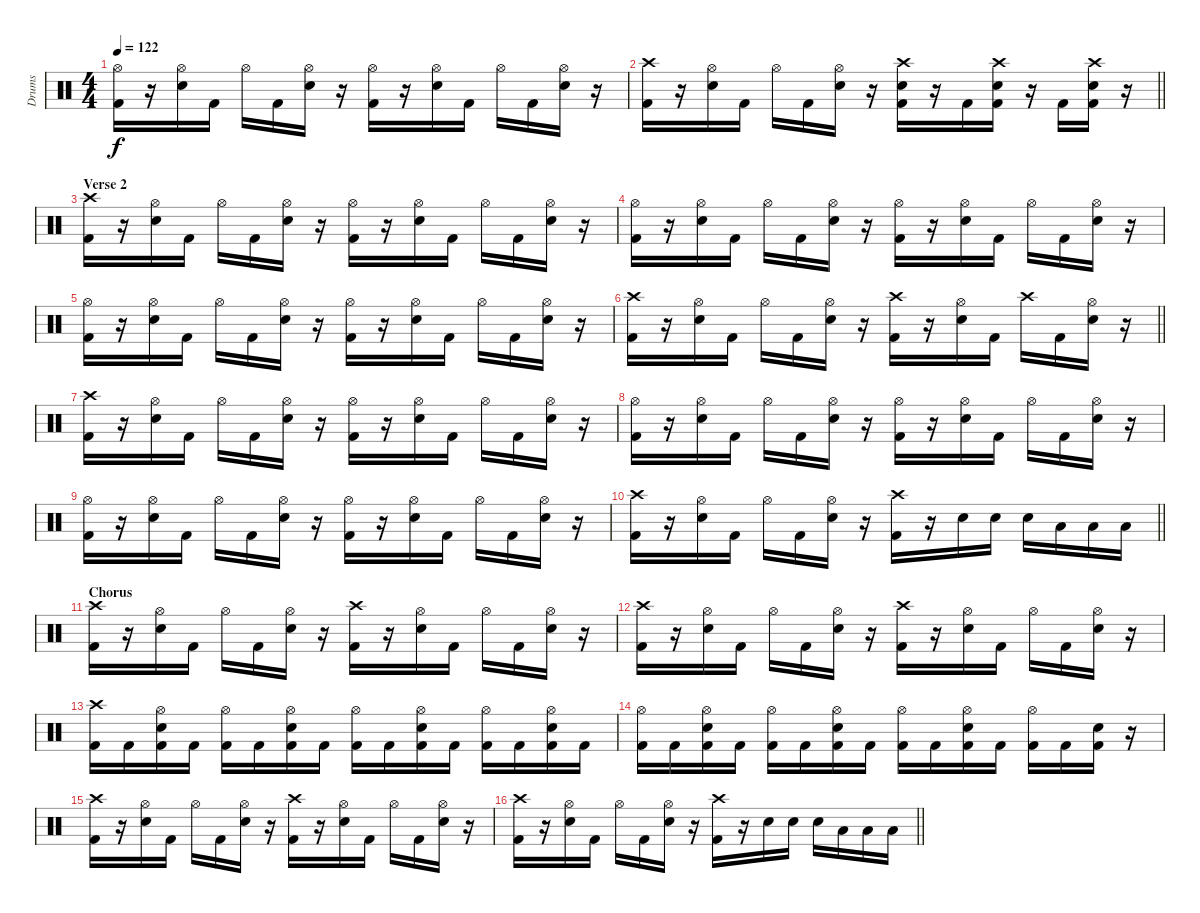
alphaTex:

\track ("Drums" "Drums") {instrument percussion}
\staff {score}
\articulation defaults
\ts (4 4)
\tempo 122
\clef neutral
\ks c
("Hi-Hat (open)" "Kick (hit) 2").16{dy f} r.16 ("Hi-Hat (open)" "Snare (hit) 2").16 "Kick (hit) 2".16 "Hi-Hat (open)".16 "Kick (hit) 2".16 ("Hi-Hat (open)" "Snare (hit) 2").16 r.16 ("Hi-Hat (open)" "Kick (hit) 2").16 r.16 ("Hi-Hat (open)" "Snare (hit) 2").16 "Kick (hit) 2".16 "Hi-Hat (open)".16 "Kick (hit) 2".16 ("Hi-Hat (open)" "Snare (hit) 2").16 r.16 |
\barLineRight lightlight
("Crash high (hit)" "Kick (hit) 2").16 r.16 ("Hi-Hat (open)" "Snare (hit) 2").16 "Kick (hit) 2".16 "Hi-Hat (open)".16 "Kick (hit) 2".16 ("Hi-Hat (open)" "Snare (hit) 2").16 r.16 ("Crash high (hit)" "Snare (hit) 2" "Kick (hit) 2").16 r.16 "Kick (hit) 2".16 ("Crash high (hit)" "Snare (hit) 2" "Kick (hit) 2").16 r.16 "Kick (hit) 2".16 ("Crash high (hit)" "Snare (hit) 2" "Kick (hit) 2").16 r.16 |
\section ("" "Verse 2")
("Crash high (hit)" "Kick (hit) 2").16 r.16 ("Hi-Hat (open)" "Snare (hit) 2").16 "Kick (hit) 2".16 "Hi-Hat (open)".16 "Kick (hit) 2".16 ("Hi-Hat (open)" "Snare (hit) 2").16 r.16 ("Hi-Hat (open)" "Kick (hit) 2").16 r.16 ("Hi-Hat (open)" "Snare (hit) 2").16 "Kick (hit) 2".16 "Hi-Hat (open)".16 "Kick (hit) 2".16 ("Hi-Hat (open)" "Snare (hit) 2").16 r.16 |
("Hi-Hat (open)" "Kick (hit) 2").16 r.16 ("Hi-Hat (open)" "Snare (hit) 2").16 "Kick (hit) 2".16 "Hi-Hat (open)".16 "Kick (hit) 2".16 ("Hi-Hat (open)" "Snare (hit) 2").16 r.16 ("Hi-Hat (open)" "Kick (hit) 2").16 r.16 ("Hi-Hat (open)" "Snare (hit) 2").16 "Kick (hit) 2".16 "Hi-Hat (open)".16 "Kick (hit) 2".16 ("Hi-Hat (open)" "Snare (hit) 2").16 r.16 |
("Hi-Hat (open)" "Kick (hit) 2").16 r.16 ("Hi-Hat (open)" "Snare (hit) 2").16 "Kick (hit) 2".16 "Hi-Hat (open)".16 "Kick (hit) 2".16 ("Hi-Hat (open)" "Snare (hit) 2").16 r.16 ("Hi-Hat (open)" "Kick (hit) 2").16 r.16 ("Hi-Hat (open)" "Snare (hit) 2").16 "Kick (hit) 2".16 "Hi-Hat (open)".16 "Kick (hit) 2".16 ("Hi-Hat (open)" "Snare (hit) 2").16 r.16 |
\barLineRight lightlight
("Crash high (hit)" "Kick (hit) 2").16 r.16 ("Hi-Hat (open)" "Snare (hit) 2").16 "Kick (hit) 2".16 "Hi-Hat (open)".16 "Kick (hit) 2".16 ("Hi-Hat (open)" "Snare (hit) 2").16 r.16 ("Crash high (hit)" "Kick (hit) 2").16 r.16 ("Hi-Hat (open)" "Snare (hit) 2").16 "Kick (hit) 2".16 "Crash high (hit)".16 "Kick (hit) 2".16 ("Hi-Hat (open)" "Snare (hit) 2").16 r.16 |
("Crash high (hit)" "Kick (hit) 2").16 r.16 ("Hi-Hat (open)" "Snare (hit) 2").16 "Kick (hit) 2".16 "Hi-Hat (open)".16 "Kick (hit) 2".16 ("Hi-Hat (open)" "Snare (hit) 2").16 r.16 ("Hi-Hat (open)" "Kick (hit) 2").16 r.16 ("Hi-Hat (open)" "Snare (hit) 2").16 "Kick (hit) 2".16 "Hi-Hat (open)".16 "Kick (hit) 2".16 ("Hi-Hat (open)" "Snare (hit) 2").16 r.16 |
("Hi-Hat (open)" "Kick (hit) 2").16 r.16 ("Hi-Hat (open)" "Snare (hit) 2").16 "Kick (hit) 2".16 "Hi-Hat (open)".16 "Kick (hit) 2".16 ("Hi-Hat (open)" "Snare (hit) 2").16 r.16 ("Hi-Hat (open)" "Kick (hit) 2").16 r.16 ("Hi-Hat (open)" "Snare (hit) 2").16 "Kick (hit) 2".16 "Hi-Hat (open)".16 "Kick (hit) 2".16 ("Hi-Hat (open)" "Snare (hit) 2").16 r.16 |
("Hi-Hat (open)" "Kick (hit) 2").16 r.16 ("Hi-Hat (open)" "Snare (hit) 2").16 "Kick (hit) 2".16 "Hi-Hat (open)".16 "Kick (hit) 2".16 ("Hi-Hat (open)" "Snare (hit) 2").16 r.16 ("Hi-Hat (open)" "Kick (hit) 2").16 r.16 ("Hi-Hat (open)" "Snare (hit) 2").16 "Kick (hit) 2".16 "Hi-Hat (open)".16 "Kick (hit) 2".16 ("Hi-Hat (open)" "Snare (hit) 2").16 r.16 |
\barLineRight lightlight
("Crash high (hit)" "Kick (hit) 2").16 r.16 ("Hi-Hat (open)" "Snare (hit) 2").16 "Kick (hit) 2".16 "Hi-Hat (open)".16 "Kick (hit) 2".16 ("Hi-Hat (open)" "Snare (hit) 2").16 r.16 ("Crash high (hit)" "Kick (hit) 2").16 r.16 "Snare (hit) 2".16 "Snare (hit) 2".16 "Snare (hit) 2".16 "Low Tom (hit)".16 "Low Tom (hit)".16 "Low Tom (hit)".16 |
\section ("" "Chorus")
("Crash high (hit)" "Kick (hit) 2").16 r.16 ("Hi-Hat (open)" "Snare (hit) 2").16 "Kick (hit) 2".16 "Hi-Hat (open)".16 "Kick (hit) 2".16 ("Hi-Hat (open)" "Snare (hit) 2").16 r.16 ("Crash high (hit)" "Kick (hit) 2").16 r.16 ("Hi-Hat (open)" "Snare (hit) 2").16 "Kick (hit) 2".16 "Hi-Hat (open)".16 "Kick (hit) 2".16 ("Hi-Hat (open)" "Snare (hit) 2").16 r.16 |
("Crash high (hit)" "Kick (hit) 2").16 r.16 ("Hi-Hat (open)" "Snare (hit) 2").16 "Kick (hit) 2".16 "Hi-Hat (open)".16 "Kick (hit) 2".16 ("Hi-Hat (open)" "Snare (hit) 2").16 r.16 ("Crash high (hit)" "Kick (hit) 2").16 r.16 ("Hi-Hat (open)" "Snare (hit) 2").16 "Kick (hit) 2".16 "Hi-Hat (open)".16 "Kick (hit) 2".16 ("Hi-Hat (open)" "Snare (hit) 2").16 r.16 |
("Crash high (hit)" "Kick (hit) 2").16 "Kick (hit) 2".16 ("Hi-Hat (open)" "Snare (hit) 2" "Kick (hit) 2").16 "Kick (hit) 2".16 ("Hi-Hat (open)" "Kick (hit) 2").16 "Kick (hit) 2".16 ("Hi-Hat (open)" "Snare (hit) 2" "Kick (hit) 2").16 "Kick (hit) 2".16 ("Hi-Hat (open)" "Kick (hit) 2").16 "Kick (hit) 2".16 ("Hi-Hat (open)" "Snare (hit) 2" "Kick (hit) 2").16 "Kick (hit) 2".16 ("Hi-Hat (open)" "Kick (hit) 2").16 "Kick (hit) 2".16 ("Hi-Hat (open)" "Snare (hit) 2" "Kick (hit) 2").16 "Kick (hit) 2".16 |
("Hi-Hat (open)" "Kick (hit) 2").16 "Kick (hit) 2".16 ("Hi-Hat (open)" "Snare (hit) 2" "Kick (hit) 2").16 "Kick (hit) 2".16 ("Hi-Hat (open)" "Kick (hit) 2").16 "Kick (hit) 2".16 ("Hi-Hat (open)" "Snare (hit) 2" "Kick (hit) 2").16 "Kick (hit) 2".16 ("Hi-Hat (open)" "Kick (hit) 2").16 "Kick (hit) 2".16 ("Hi-Hat (open)" "Snare (hit) 2" "Kick (hit) 2").16 "Kick (hit) 2".16 ("Hi-Hat (open)" "Kick (hit) 2").16 "Kick (hit) 2".16 ("Snare (hit) 2" "Kick (hit) 2").16 r.16 |
("Crash high (hit)" "Kick (hit) 2").16 r.16 ("Hi-Hat (open)" "Snare (hit) 2").16 "Kick (hit) 2".16 "Hi-Hat (open)".16 "Kick (hit) 2".16 ("Hi-Hat (open)" "Snare (hit) 2").16 r.16 ("Crash high (hit)" "Kick (hit) 2").16 r.16 ("Hi-Hat (open)" "Snare (hit) 2").16 "Kick (hit) 2".16 "Hi-Hat (open)".16 "Kick (hit) 2".16 ("Hi-Hat (open)" "Snare (hit) 2").16 r.16 |
\barLineRight lightlight
("Crash high (hit)" "Kick (hit) 2").16 r.16 ("Hi-Hat (open)" "Snare (hit) 2").16 "Kick (hit) 2".16 "Hi-Hat (open)".16 "Kick (hit) 2".16 ("Hi-Hat (open)" "Snare (hit) 2").16 r.16 ("Crash high (hit)" "Kick (hit) 2").16 r.16 "Snare (hit) 2".16 "Snare (hit) 2".16 "Snare (hit) 2".16 "Low Tom (hit)".16 "Low Tom (hit)".16 "Low Tom (hit)".16
